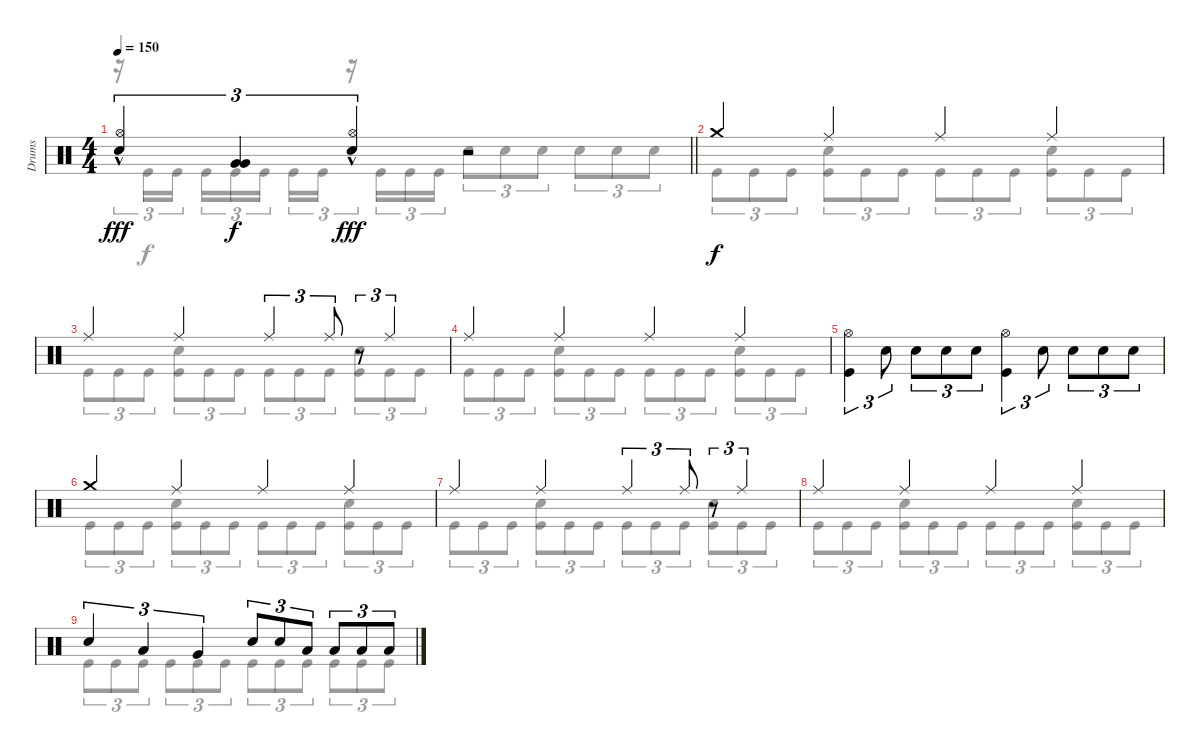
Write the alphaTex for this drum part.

\track ("Drums" "Drums") {instrument percussion}
\staff {score}
\articulation defaults
\voice
\ts (4 4)
\tempo 150
\clef neutral
\barLineRight lightlight
\ks c
("Hi-Hat (open)" "Electric Snare (hit)"{hac}).4{tu (3 2) dy fff} ("Very Low Tom (hit)" "Very Low Tom (hit)").4{tu (3 2) dy f} ("Hi-Hat (open)" "Electric Snare (hit)"{hac}).4{tu (3 2) dy fff} r.2 |
\section ("" "")
"Crash medium (hit)".4{dy f} "Ride (middle)".4 "Ride (middle)".4 "Ride (middle)".4 |
"Ride (middle)".4 "Ride (middle)".4 "Ride (middle)".4{tu (3 2)} "Ride (middle)".8{tu (3 2)} r.8{tu (3 2)} "Ride (middle)".4{tu (3 2)} |
"Ride (middle)".4 "Ride (middle)".4 "Ride (middle)".4 "Ride (middle)".4 |
("Hi-Hat (open)" "Kick (hit)").4{tu (3 2)} "Electric Snare (hit)".8{tu (3 2)} "Electric Snare (hit)".8{tu (3 2)} "Electric Snare (hit)".8{tu (3 2)} "Electric Snare (hit)".8{tu (3 2)} ("Hi-Hat (open)" "Kick (hit)").4{tu (3 2)} "Electric Snare (hit)".8{tu (3 2)} "Electric Snare (hit)".8{tu (3 2)} "Electric Snare (hit)".8{tu (3 2)} "Electric Snare (hit)".8{tu (3 2)} |
"Crash medium (hit)".4 "Ride (middle)".4 "Ride (middle)".4 "Ride (middle)".4 |
"Ride (middle)".4 "Ride (middle)".4 "Ride (middle)".4{tu (3 2)} "Ride (middle)".8{tu (3 2)} r.8{tu (3 2)} "Ride (middle)".4{tu (3 2)} |
"Ride (middle)".4 "Ride (middle)".4 "Ride (middle)".4 "Ride (middle)".4 |
"Electric Snare (hit)".4{tu (3 2)} "Low Tom (hit)".4{tu (3 2)} "Very Low Tom (hit)".4{tu (3 2)} "Electric Snare (hit)".8{tu (3 2)} "Electric Snare (hit)".8{tu (3 2)} "Low Tom (hit)".8{tu (3 2)} "Low Tom (hit)".8{tu (3 2)} "Low Floor Tom (hit)".8{tu (3 2)} "Low Floor Tom (hit)".8{tu (3 2)}
\voice
\clef neutral
\ottava regular
\simile none
\barLineRight lightlight
\ks c
r.16{tu (3 2) dy f} "Kick (hit)".16{tu (3 2)} "Kick (hit)".16{tu (3 2) beam splitsecondary} "Kick (hit)".16{tu (3 2)} "Kick (hit)".16{tu (3 2)} "Kick (hit)".16{tu (3 2)} "Kick (hit)".16{tu (3 2)} "Kick (hit)".16{tu (3 2)} r.16{tu (3 2)} "Kick (hit)".16{tu (3 2)} "Kick (hit)".16{tu (3 2)} "Kick (hit)".16{tu (3 2)} "Electric Snare (hit)".8{tu (3 2)} "Electric Snare (hit)".8{tu (3 2)} "Electric Snare (hit)".8{tu (3 2)} "Electric Snare (hit)".8{tu (3 2)} "Electric Snare (hit)".8{tu (3 2)} "Electric Snare (hit)".8{tu (3 2)} |
"Kick (hit)".8{tu (3 2)} "Kick (hit)".8{tu (3 2)} "Kick (hit)".8{tu (3 2)} ("Electric Snare (hit)" "Kick (hit)").8{tu (3 2)} "Kick (hit)".8{tu (3 2)} "Kick (hit)".8{tu (3 2)} "Kick (hit)".8{tu (3 2)} "Kick (hit)".8{tu (3 2)} "Kick (hit)".8{tu (3 2)} ("Electric Snare (hit)" "Kick (hit)").8{tu (3 2)} "Kick (hit)".8{tu (3 2)} "Kick (hit)".8{tu (3 2)} |
"Kick (hit)".8{tu (3 2)} "Kick (hit)".8{tu (3 2)} "Kick (hit)".8{tu (3 2)} ("Electric Snare (hit)" "Kick (hit)").8{tu (3 2)} "Kick (hit)".8{tu (3 2)} "Kick (hit)".8{tu (3 2)} "Kick (hit)".8{tu (3 2)} "Kick (hit)".8{tu (3 2)} "Kick (hit)".8{tu (3 2)} ("Electric Snare (hit)" "Kick (hit)").8{tu (3 2)} "Kick (hit)".8{tu (3 2)} "Kick (hit)".8{tu (3 2)} |
"Kick (hit)".8{tu (3 2)} "Kick (hit)".8{tu (3 2)} "Kick (hit)".8{tu (3 2)} ("Electric Snare (hit)" "Kick (hit)").8{tu (3 2)} "Kick (hit)".8{tu (3 2)} "Kick (hit)".8{tu (3 2)} "Kick (hit)".8{tu (3 2)} "Kick (hit)".8{tu (3 2)} "Kick (hit)".8{tu (3 2)} ("Electric Snare (hit)" "Kick (hit)").8{tu (3 2)} "Kick (hit)".8{tu (3 2)} "Kick (hit)".8{tu (3 2)} |
|
"Kick (hit)".8{tu (3 2)} "Kick (hit)".8{tu (3 2)} "Kick (hit)".8{tu (3 2)} ("Electric Snare (hit)" "Kick (hit)").8{tu (3 2)} "Kick (hit)".8{tu (3 2)} "Kick (hit)".8{tu (3 2)} "Kick (hit)".8{tu (3 2)} "Kick (hit)".8{tu (3 2)} "Kick (hit)".8{tu (3 2)} ("Electric Snare (hit)" "Kick (hit)").8{tu (3 2)} "Kick (hit)".8{tu (3 2)} "Kick (hit)".8{tu (3 2)} |
"Kick (hit)".8{tu (3 2)} "Kick (hit)".8{tu (3 2)} "Kick (hit)".8{tu (3 2)} ("Electric Snare (hit)" "Kick (hit)").8{tu (3 2)} "Kick (hit)".8{tu (3 2)} "Kick (hit)".8{tu (3 2)} "Kick (hit)".8{tu (3 2)} "Kick (hit)".8{tu (3 2)} "Kick (hit)".8{tu (3 2)} ("Electric Snare (hit)" "Kick (hit)").8{tu (3 2)} "Kick (hit)".8{tu (3 2)} "Kick (hit)".8{tu (3 2)} |
"Kick (hit)".8{tu (3 2)} "Kick (hit)".8{tu (3 2)} "Kick (hit)".8{tu (3 2)} ("Electric Snare (hit)" "Kick (hit)").8{tu (3 2)} "Kick (hit)".8{tu (3 2)} "Kick (hit)".8{tu (3 2)} "Kick (hit)".8{tu (3 2)} "Kick (hit)".8{tu (3 2)} "Kick (hit)".8{tu (3 2)} ("Electric Snare (hit)" "Kick (hit)").8{tu (3 2)} "Kick (hit)".8{tu (3 2)} "Kick (hit)".8{tu (3 2)} |
"Kick (hit)".8{tu (3 2)} "Kick (hit)".8{tu (3 2)} "Kick (hit)".8{tu (3 2)} "Kick (hit)".8{tu (3 2)} "Kick (hit)".8{tu (3 2)} "Kick (hit)".8{tu (3 2)} "Kick (hit)".8{tu (3 2)} "Kick (hit)".8{tu (3 2)} "Kick (hit)".8{tu (3 2)} "Kick (hit)".8{tu (3 2)} "Kick (hit)".8{tu (3 2)} "Kick (hit)".8{tu (3 2)}
